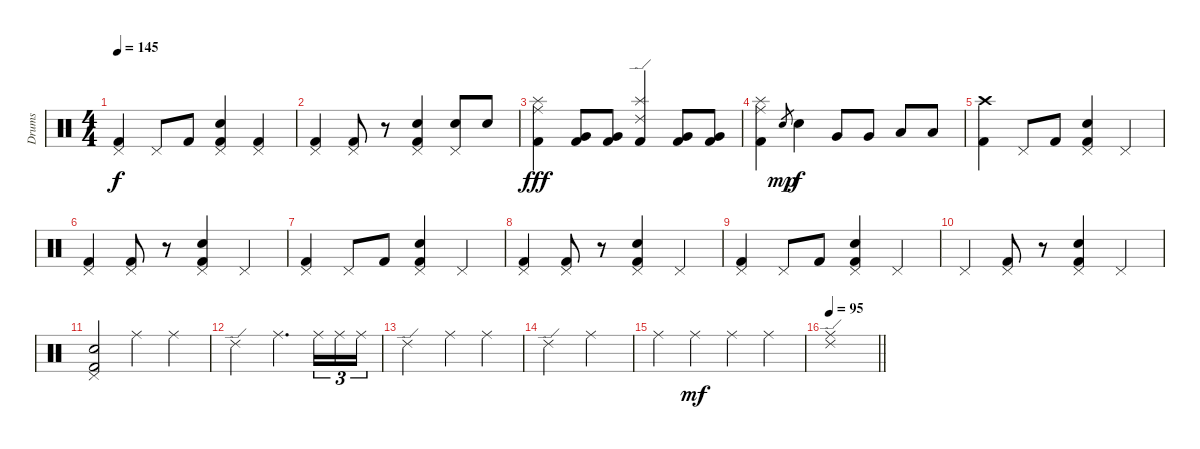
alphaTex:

\track ("Drums" "Drums") {instrument percussion}
\staff {score}
\articulation defaults
\ts (4 4)
\tempo 145
\clef neutral
\ks c
("Pedal Hi-Hat (hit)" "Kick (hit) 2").4{dy f} "Pedal Hi-Hat (hit)".8 "Kick (hit) 2".8 ("Pedal Hi-Hat (hit)" "Electric Snare (hit)" "Kick (hit) 2").4 ("Pedal Hi-Hat (hit)" "Kick (hit) 2").4 |
("Pedal Hi-Hat (hit)" "Kick (hit) 2").4 ("Pedal Hi-Hat (hit)" "Kick (hit) 2").8 r.8 ("Pedal Hi-Hat (hit)" "Electric Snare (hit)" "Kick (hit) 2").4 ("Pedal Hi-Hat (hit)" "Electric Snare (hit)").8 "Electric Snare (hit)".8 |
("Ride (middle)" "Splash (hit)" "Kick (hit) 2").4{dy fff} ("Very Low Tom (hit)" "Kick (hit) 2").8 ("Very Low Tom (hit)" "Kick (hit) 2").8 ("Ride (edge) 2" "Splash (hit)" "Kick (hit) 2").4 ("Very Low Tom (hit)" "Kick (hit) 2").8 ("Very Low Tom (hit)" "Kick (hit) 2").8 |
("Ride (middle)" "Splash (hit)" "Kick (hit) 2").4 "Electric Snare (hit)".8{gr dy mp} "Electric Snare (hit)".4{dy f} "Very Low Tom (hit)".8 "Very Low Tom (hit)".8 "Low Tom (hit)".8 "Low Tom (hit)".8 |
("Crash high (hit)" "Kick (hit) 2").4 "Pedal Hi-Hat (hit)".8 "Kick (hit) 2".8 ("Pedal Hi-Hat (hit)" "Electric Snare (hit)" "Kick (hit) 2").4 "Pedal Hi-Hat (hit)".4 |
("Pedal Hi-Hat (hit)" "Kick (hit) 2").4 ("Pedal Hi-Hat (hit)" "Kick (hit) 2").8 r.8 ("Pedal Hi-Hat (hit)" "Electric Snare (hit)" "Kick (hit) 2").4 "Pedal Hi-Hat (hit)".4 |
("Pedal Hi-Hat (hit)" "Kick (hit) 2").4 "Pedal Hi-Hat (hit)".8 "Kick (hit) 2".8 ("Pedal Hi-Hat (hit)" "Electric Snare (hit)" "Kick (hit) 2").4 "Pedal Hi-Hat (hit)".4 |
("Pedal Hi-Hat (hit)" "Kick (hit) 2").4 ("Pedal Hi-Hat (hit)" "Kick (hit) 2").8 r.8 ("Pedal Hi-Hat (hit)" "Electric Snare (hit)" "Kick (hit) 2").4 "Pedal Hi-Hat (hit)".4 |
("Pedal Hi-Hat (hit)" "Kick (hit) 2").4 "Pedal Hi-Hat (hit)".8 "Kick (hit) 2".8 ("Pedal Hi-Hat (hit)" "Electric Snare (hit)" "Kick (hit) 2").4 "Pedal Hi-Hat (hit)".4 |
"Pedal Hi-Hat (hit)".4 ("Pedal Hi-Hat (hit)" "Kick (hit) 2").8 r.8 ("Pedal Hi-Hat (hit)" "Electric Snare (hit)" "Kick (hit) 2").4 "Pedal Hi-Hat (hit)".4 |
("Pedal Hi-Hat (hit)" "Electric Snare (hit)" "Kick (hit) 2").2 "Ride (middle)".4 "Ride (middle)".4 |
"Ride (edge) 2".2 "Ride (middle)".4{d} "Ride (middle)".16{tu (3 2)} "Ride (middle)".16{tu (3 2)} "Ride (middle)".16{tu (3 2)} |
"Ride (edge) 2".2 "Ride (middle)".4 "Ride (middle)".4 |
"Ride (edge) 2".2 "Ride (middle)".2 |
"Ride (middle)".4 "Ride (middle)".4{dy mf} "Ride (middle)".4 "Ride (middle)".4 |
\tempo 95
\barLineRight lightlight
("Ride (middle)" "Ride (edge) 2").1
